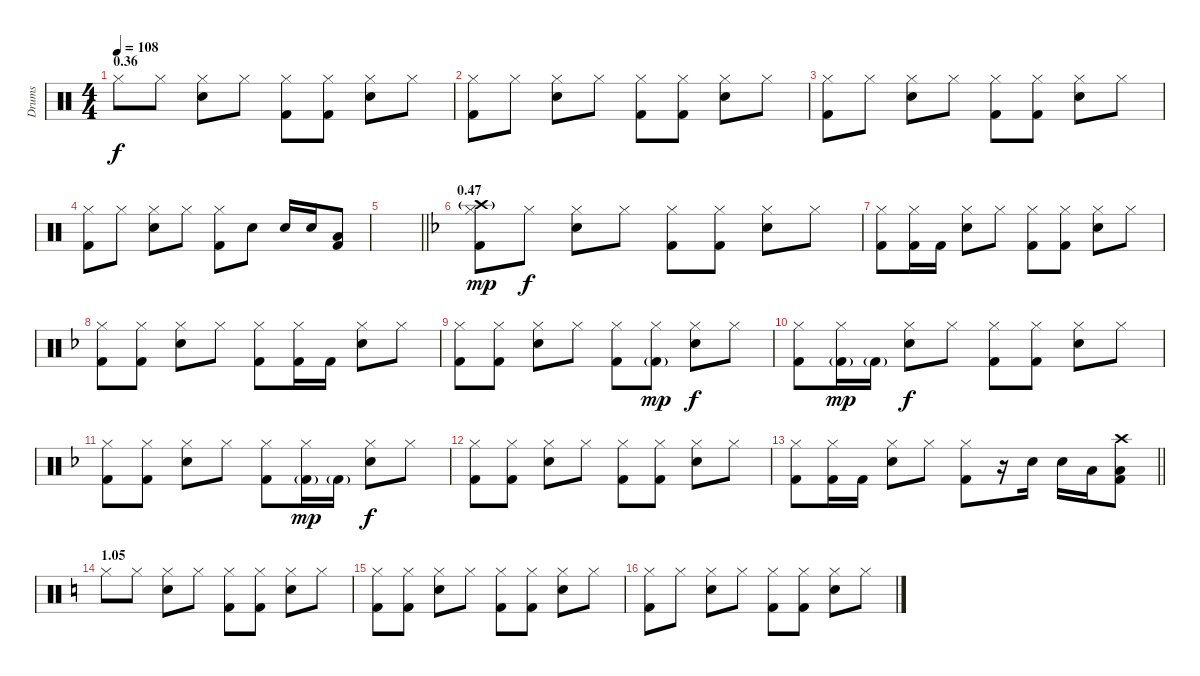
\track ("Drums" "Drums") {instrument percussion}
\staff {score}
\articulation defaults
\ts (4 4)
\section ("" "0.36")
\tempo 108
\clef neutral
\ks c "Hi-Hat (closed)".8{dy f} "Hi-Hat (closed)".8
("Hi-Hat (closed)" "Electric Snare (hit)").8 "Hi-Hat (closed)".8 ("Hi-Hat (closed)" "Kick (hit) 2").8 ("Hi-Hat (closed)" "Kick (hit) 2").8 ("Hi-Hat (closed)" "Electric Snare (hit)").8 "Hi-Hat (closed)".8 |
("Hi-Hat (closed)" "Kick (hit) 2").8 "Hi-Hat (closed)".8 ("Hi-Hat (closed)" "Electric Snare (hit)").8 "Hi-Hat (closed)".8 ("Hi-Hat (closed)" "Kick (hit) 2").8 ("Hi-Hat (closed)" "Kick (hit) 2").8 ("Hi-Hat (closed)" "Electric Snare (hit)").8 "Hi-Hat (closed)".8 |
("Hi-Hat (closed)" "Kick (hit) 2").8 "Hi-Hat (closed)".8 ("Hi-Hat (closed)" "Electric Snare (hit)").8 "Hi-Hat (closed)".8 ("Hi-Hat (closed)" "Kick (hit) 2").8 ("Hi-Hat (closed)" "Kick (hit) 2").8 ("Hi-Hat (closed)" "Electric Snare (hit)").8 "Hi-Hat (closed)".8 |
("Hi-Hat (closed)" "Kick (hit) 2").8 "Hi-Hat (closed)".8 ("Hi-Hat (closed)" "Electric Snare (hit)").8 "Hi-Hat (closed)".8 ("Hi-Hat (closed)" "Kick (hit) 2").8 "Electric Snare (hit)".8 "Electric Snare (hit)".16 "Electric Snare (hit)".16 ("Low Tom (hit)" "Kick (hit) 2").8 |
\barLineRight lightlight
|
\section ("" "0.47")
\ks f
("Crash high (hit)"{g} "Hi-Hat (closed)" "Kick (hit) 2").8{dy mp} "Hi-Hat (closed)".8{dy f} ("Hi-Hat (closed)" "Electric Snare (hit)").8 "Hi-Hat (closed)".8 ("Hi-Hat (closed)" "Kick (hit) 2").8 ("Hi-Hat (closed)" "Kick (hit) 2").8 ("Hi-Hat (closed)" "Electric Snare (hit)").8 "Hi-Hat (closed)".8 |
("Hi-Hat (closed)" "Kick (hit) 2").8 ("Hi-Hat (closed)" "Kick (hit) 2").16 "Kick (hit) 2".16 ("Hi-Hat (closed)" "Electric Snare (hit)").8 "Hi-Hat (closed)".8 ("Hi-Hat (closed)" "Kick (hit) 2").8 ("Hi-Hat (closed)" "Kick (hit) 2").8 ("Hi-Hat (closed)" "Electric Snare (hit)").8 "Hi-Hat (closed)".8 |
("Hi-Hat (closed)" "Kick (hit) 2").8 ("Hi-Hat (closed)" "Kick (hit) 2").8 ("Hi-Hat (closed)" "Electric Snare (hit)").8 "Hi-Hat (closed)".8 ("Hi-Hat (closed)" "Kick (hit) 2").8 ("Hi-Hat (closed)" "Kick (hit) 2").16 "Kick (hit) 2".16 ("Hi-Hat (closed)" "Electric Snare (hit)").8 "Hi-Hat (closed)".8 |
("Hi-Hat (closed)" "Kick (hit) 2").8 ("Hi-Hat (closed)" "Kick (hit) 2").8 ("Hi-Hat (closed)" "Electric Snare (hit)").8 "Hi-Hat (closed)".8 ("Hi-Hat (closed)" "Kick (hit) 2").8 ("Hi-Hat (closed)" "Kick (hit) 2"{g}).8{dy mp} ("Hi-Hat (closed)" "Electric Snare (hit)").8{dy f} "Hi-Hat (closed)".8 |
("Hi-Hat (closed)" "Kick (hit) 2").8 ("Hi-Hat (closed)" "Kick (hit) 2"{g}).16{dy mp} "Kick (hit) 2"{g}.16 ("Hi-Hat (closed)" "Electric Snare (hit)").8{dy f} "Hi-Hat (closed)".8 ("Hi-Hat (closed)" "Kick (hit) 2").8 ("Hi-Hat (closed)" "Kick (hit) 2").8 ("Hi-Hat (closed)" "Electric Snare (hit)").8 "Hi-Hat (closed)".8 |
("Hi-Hat (closed)" "Kick (hit) 2").8 ("Hi-Hat (closed)" "Kick (hit) 2").8 ("Hi-Hat (closed)" "Electric Snare (hit)").8 "Hi-Hat (closed)".8 ("Hi-Hat (closed)" "Kick (hit) 2").8 ("Hi-Hat (closed)" "Kick (hit) 2"{g}).16{dy mp} "Kick (hit) 2"{g}.16 ("Hi-Hat (closed)" "Electric Snare (hit)").8{dy f} "Hi-Hat (closed)".8 |
("Hi-Hat (closed)" "Kick (hit) 2").8 ("Hi-Hat (closed)" "Kick (hit) 2").8 ("Hi-Hat (closed)" "Electric Snare (hit)").8 "Hi-Hat (closed)".8 ("Hi-Hat (closed)" "Kick (hit) 2").8 ("Hi-Hat (closed)" "Kick (hit) 2").8 ("Hi-Hat (closed)" "Electric Snare (hit)").8 "Hi-Hat (closed)".8 |
\barLineRight lightlight
("Hi-Hat (closed)" "Kick (hit) 2").8 ("Hi-Hat (closed)" "Kick (hit) 2").16 "Kick (hit) 2".16 ("Hi-Hat (closed)" "Electric Snare (hit)").8 "Hi-Hat (closed)".8 ("Hi-Hat (closed)" "Kick (hit) 2").8 r.16 "Electric Snare (hit)".16 "Electric Snare (hit)".16 "Low Tom (hit)".16 ("Crash high (hit)" "Low Tom (hit)" "Kick (hit) 2").8 |
\section ("" "1.05")
\ks c "Hi-Hat (closed)".8 "Hi-Hat (closed)".8
("Hi-Hat (closed)" "Electric Snare (hit)").8 "Hi-Hat (closed)".8 ("Hi-Hat (closed)" "Kick (hit) 2").8 ("Hi-Hat (closed)" "Kick (hit) 2").8 ("Hi-Hat (closed)" "Electric Snare (hit)").8 "Hi-Hat (closed)".8 |
("Hi-Hat (closed)" "Kick (hit) 2").8 ("Hi-Hat (closed)" "Kick (hit) 2").8 ("Hi-Hat (closed)" "Electric Snare (hit)").8 "Hi-Hat (closed)".8 ("Hi-Hat (closed)" "Kick (hit) 2").8 ("Hi-Hat (closed)" "Kick (hit) 2").8 ("Hi-Hat (closed)" "Electric Snare (hit)").8 "Hi-Hat (closed)".8 |
("Hi-Hat (closed)" "Kick (hit) 2").8 "Hi-Hat (closed)".8 ("Hi-Hat (closed)" "Electric Snare (hit)").8 "Hi-Hat (closed)".8 ("Hi-Hat (closed)" "Kick (hit) 2").8 ("Hi-Hat (closed)" "Kick (hit) 2").8 ("Hi-Hat (closed)" "Electric Snare (hit)").8 "Hi-Hat (closed)".8
